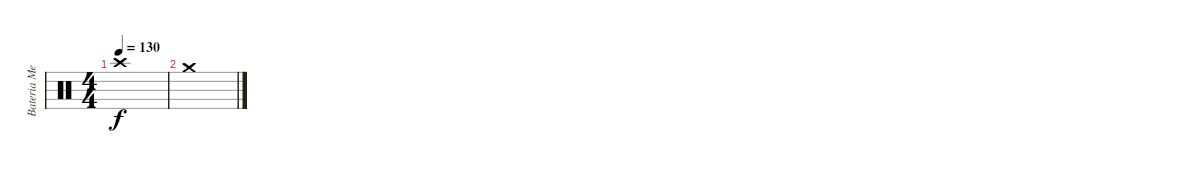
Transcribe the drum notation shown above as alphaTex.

\track ("Bateria Men" "Bateria Me") {instrument percussion}
\staff {score}
\articulation defaults
\ts (4 4)
\tempo 130
\clef neutral
\ks c "Crash high (hit)".1{dy f}
|
"Crash medium (hit)".1
